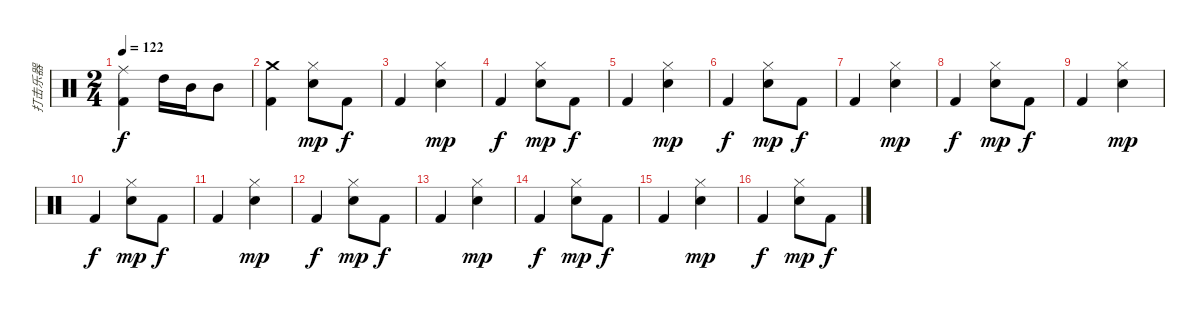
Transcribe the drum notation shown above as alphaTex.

\track ("打击乐器" "打击乐器") {instrument percussion}
\staff {score}
\articulation defaults
\ts (2 4)
\tempo 122
\clef neutral
\ks c
("Ride (middle)" "Kick (hit) 2").4{dy f} "High Tom (hit)".16 "Mid Tom (hit)".16 "Mid Tom (hit)".8 |
("Crash medium (hit)" "Kick (hit) 2").4 ("Hi-Hat (closed)" "Electric Snare (hit)").8{dy mp} "Kick (hit) 2".8{dy f} |
"Kick (hit) 2".4 ("Hi-Hat (closed)" "Electric Snare (hit)").4{dy mp} |
"Kick (hit) 2".4{dy f} ("Hi-Hat (closed)" "Electric Snare (hit)").8{dy mp} "Kick (hit) 2".8{dy f} |
"Kick (hit) 2".4 ("Hi-Hat (closed)" "Electric Snare (hit)").4{dy mp} |
"Kick (hit) 2".4{dy f} ("Hi-Hat (closed)" "Electric Snare (hit)").8{dy mp} "Kick (hit) 2".8{dy f} |
"Kick (hit) 2".4 ("Hi-Hat (closed)" "Electric Snare (hit)").4{dy mp} |
"Kick (hit) 2".4{dy f} ("Hi-Hat (closed)" "Electric Snare (hit)").8{dy mp} "Kick (hit) 2".8{dy f} |
"Kick (hit) 2".4 ("Hi-Hat (closed)" "Electric Snare (hit)").4{dy mp} |
"Kick (hit) 2".4{dy f} ("Hi-Hat (closed)" "Electric Snare (hit)").8{dy mp} "Kick (hit) 2".8{dy f} |
"Kick (hit) 2".4 ("Hi-Hat (closed)" "Electric Snare (hit)").4{dy mp} |
"Kick (hit) 2".4{dy f} ("Hi-Hat (closed)" "Electric Snare (hit)").8{dy mp} "Kick (hit) 2".8{dy f} |
"Kick (hit) 2".4 ("Hi-Hat (closed)" "Electric Snare (hit)").4{dy mp} |
"Kick (hit) 2".4{dy f} ("Hi-Hat (closed)" "Electric Snare (hit)").8{dy mp} "Kick (hit) 2".8{dy f} |
"Kick (hit) 2".4 ("Hi-Hat (closed)" "Electric Snare (hit)").4{dy mp} |
"Kick (hit) 2".4{dy f} ("Hi-Hat (closed)" "Electric Snare (hit)").8{dy mp} "Kick (hit) 2".8{dy f}
